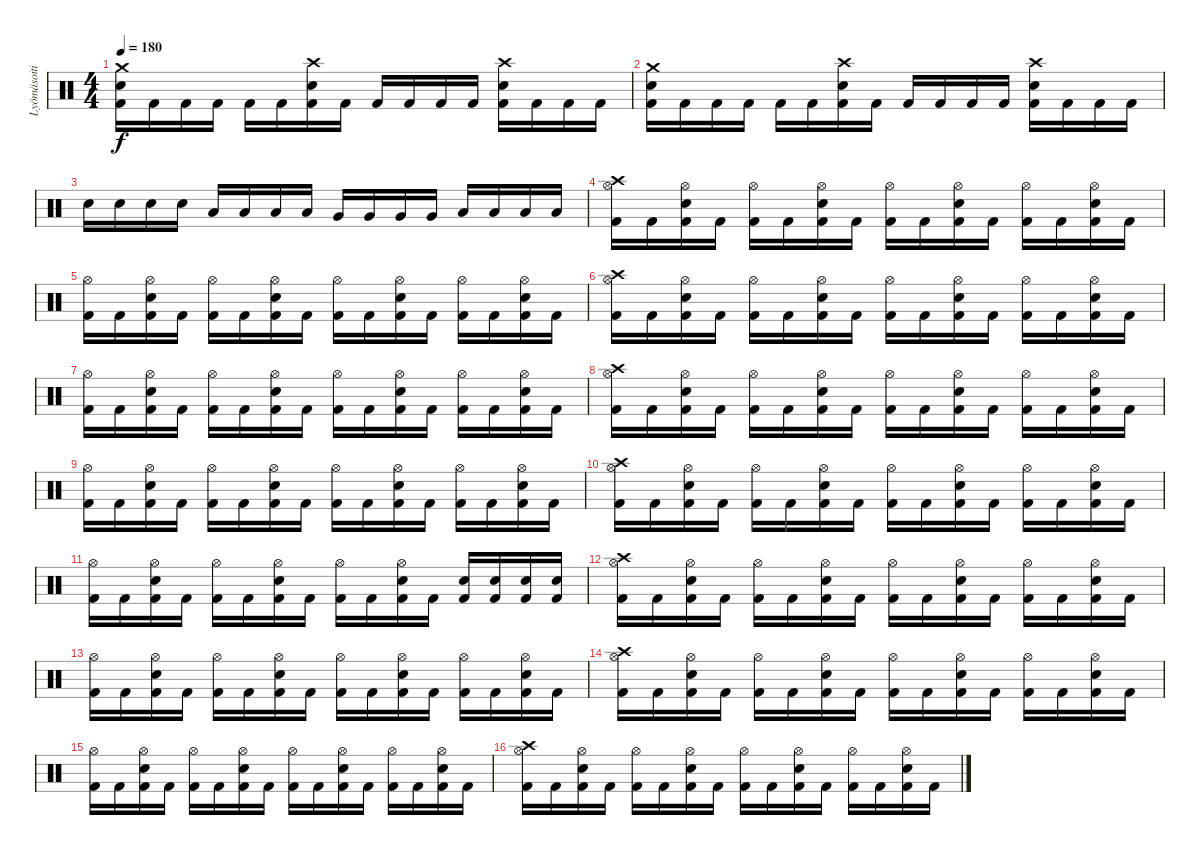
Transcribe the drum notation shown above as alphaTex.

\track ("Lyömäsoitin" "Lyömäsoiti") {instrument percussion}
\staff {score}
\articulation defaults
\ts (4 4)
\tempo 180
\clef neutral
\ks c
("Kick (hit) 2" "Snare (hit) 2" "Crash medium (hit)").16{dy f} "Kick (hit) 2".16 "Kick (hit) 2".16 "Kick (hit) 2".16 "Kick (hit) 2".16 "Kick (hit) 2".16 ("Kick (hit) 2" "Snare (hit) 2" "Crash high (hit)").16 "Kick (hit) 2".16 "Kick (hit) 2".16 "Kick (hit) 2".16 "Kick (hit) 2".16 "Kick (hit) 2".16 ("Kick (hit) 2" "Snare (hit) 2" "Crash high (hit)").16 "Kick (hit) 2".16 "Kick (hit) 2".16 "Kick (hit) 2".16 |
("Kick (hit) 2" "Snare (hit) 2" "Crash medium (hit)").16 "Kick (hit) 2".16 "Kick (hit) 2".16 "Kick (hit) 2".16 "Kick (hit) 2".16 "Kick (hit) 2".16 ("Kick (hit) 2" "Snare (hit) 2" "Crash high (hit)").16 "Kick (hit) 2".16 "Kick (hit) 2".16 "Kick (hit) 2".16 "Kick (hit) 2".16 "Kick (hit) 2".16 ("Kick (hit) 2" "Snare (hit) 2" "Crash high (hit)").16 "Kick (hit) 2".16 "Kick (hit) 2".16 "Kick (hit) 2".16 |
"Snare (hit) 2".16 "Snare (hit) 2".16 "Snare (hit) 2".16 "Snare (hit) 2".16 "Low Tom (hit)".16 "Low Tom (hit)".16 "Low Tom (hit)".16 "Low Tom (hit)".16 "Very Low Tom (hit)".16 "Very Low Tom (hit)".16 "Very Low Tom (hit)".16 "Very Low Tom (hit)".16 "Low Floor Tom (hit)".16 "Low Floor Tom (hit)".16 "Low Floor Tom (hit)".16 "Low Floor Tom (hit)".16 |
("Kick (hit) 2" "Crash high (hit)" "Hi-Hat (open)").16 "Kick (hit) 2".16 ("Kick (hit) 2" "Snare (hit) 2" "Hi-Hat (open)").16 "Kick (hit) 2".16 ("Kick (hit) 2" "Hi-Hat (open)").16 "Kick (hit) 2".16 ("Kick (hit) 2" "Snare (hit) 2" "Hi-Hat (open)").16 "Kick (hit) 2".16 ("Kick (hit) 2" "Hi-Hat (open)").16 "Kick (hit) 2".16 ("Kick (hit) 2" "Snare (hit) 2" "Hi-Hat (open)").16 "Kick (hit) 2".16 ("Kick (hit) 2" "Hi-Hat (open)").16 "Kick (hit) 2".16 ("Kick (hit) 2" "Snare (hit) 2" "Hi-Hat (open)").16 "Kick (hit) 2".16 |
("Kick (hit) 2" "Hi-Hat (open)").16 "Kick (hit) 2".16 ("Kick (hit) 2" "Snare (hit) 2" "Hi-Hat (open)").16 "Kick (hit) 2".16 ("Kick (hit) 2" "Hi-Hat (open)").16 "Kick (hit) 2".16 ("Kick (hit) 2" "Snare (hit) 2" "Hi-Hat (open)").16 "Kick (hit) 2".16 ("Kick (hit) 2" "Hi-Hat (open)").16 "Kick (hit) 2".16 ("Kick (hit) 2" "Snare (hit) 2" "Hi-Hat (open)").16 "Kick (hit) 2".16 ("Kick (hit) 2" "Hi-Hat (open)").16 "Kick (hit) 2".16 ("Kick (hit) 2" "Snare (hit) 2" "Hi-Hat (open)").16 "Kick (hit) 2".16 |
("Kick (hit) 2" "Crash high (hit)" "Hi-Hat (open)").16 "Kick (hit) 2".16 ("Kick (hit) 2" "Snare (hit) 2" "Hi-Hat (open)").16 "Kick (hit) 2".16 ("Kick (hit) 2" "Hi-Hat (open)").16 "Kick (hit) 2".16 ("Kick (hit) 2" "Snare (hit) 2" "Hi-Hat (open)").16 "Kick (hit) 2".16 ("Kick (hit) 2" "Hi-Hat (open)").16 "Kick (hit) 2".16 ("Kick (hit) 2" "Snare (hit) 2" "Hi-Hat (open)").16 "Kick (hit) 2".16 ("Kick (hit) 2" "Hi-Hat (open)").16 "Kick (hit) 2".16 ("Kick (hit) 2" "Snare (hit) 2" "Hi-Hat (open)").16 "Kick (hit) 2".16 |
("Kick (hit) 2" "Hi-Hat (open)").16 "Kick (hit) 2".16 ("Kick (hit) 2" "Snare (hit) 2" "Hi-Hat (open)").16 "Kick (hit) 2".16 ("Kick (hit) 2" "Hi-Hat (open)").16 "Kick (hit) 2".16 ("Kick (hit) 2" "Snare (hit) 2" "Hi-Hat (open)").16 "Kick (hit) 2".16 ("Kick (hit) 2" "Hi-Hat (open)").16 "Kick (hit) 2".16 ("Kick (hit) 2" "Snare (hit) 2" "Hi-Hat (open)").16 "Kick (hit) 2".16 ("Kick (hit) 2" "Hi-Hat (open)").16 "Kick (hit) 2".16 ("Kick (hit) 2" "Snare (hit) 2" "Hi-Hat (open)").16 "Kick (hit) 2".16 |
("Kick (hit) 2" "Crash high (hit)" "Hi-Hat (open)").16 "Kick (hit) 2".16 ("Kick (hit) 2" "Snare (hit) 2" "Hi-Hat (open)").16 "Kick (hit) 2".16 ("Kick (hit) 2" "Hi-Hat (open)").16 "Kick (hit) 2".16 ("Kick (hit) 2" "Snare (hit) 2" "Hi-Hat (open)").16 "Kick (hit) 2".16 ("Kick (hit) 2" "Hi-Hat (open)").16 "Kick (hit) 2".16 ("Kick (hit) 2" "Snare (hit) 2" "Hi-Hat (open)").16 "Kick (hit) 2".16 ("Kick (hit) 2" "Hi-Hat (open)").16 "Kick (hit) 2".16 ("Kick (hit) 2" "Snare (hit) 2" "Hi-Hat (open)").16 "Kick (hit) 2".16 |
("Kick (hit) 2" "Hi-Hat (open)").16 "Kick (hit) 2".16 ("Kick (hit) 2" "Snare (hit) 2" "Hi-Hat (open)").16 "Kick (hit) 2".16 ("Kick (hit) 2" "Hi-Hat (open)").16 "Kick (hit) 2".16 ("Kick (hit) 2" "Snare (hit) 2" "Hi-Hat (open)").16 "Kick (hit) 2".16 ("Kick (hit) 2" "Hi-Hat (open)").16 "Kick (hit) 2".16 ("Kick (hit) 2" "Snare (hit) 2" "Hi-Hat (open)").16 "Kick (hit) 2".16 ("Kick (hit) 2" "Hi-Hat (open)").16 "Kick (hit) 2".16 ("Kick (hit) 2" "Snare (hit) 2" "Hi-Hat (open)").16 "Kick (hit) 2".16 |
("Kick (hit) 2" "Crash high (hit)" "Hi-Hat (open)").16 "Kick (hit) 2".16 ("Kick (hit) 2" "Snare (hit) 2" "Hi-Hat (open)").16 "Kick (hit) 2".16 ("Kick (hit) 2" "Hi-Hat (open)").16 "Kick (hit) 2".16 ("Kick (hit) 2" "Snare (hit) 2" "Hi-Hat (open)").16 "Kick (hit) 2".16 ("Kick (hit) 2" "Hi-Hat (open)").16 "Kick (hit) 2".16 ("Kick (hit) 2" "Snare (hit) 2" "Hi-Hat (open)").16 "Kick (hit) 2".16 ("Kick (hit) 2" "Hi-Hat (open)").16 "Kick (hit) 2".16 ("Kick (hit) 2" "Snare (hit) 2" "Hi-Hat (open)").16 "Kick (hit) 2".16 |
("Kick (hit) 2" "Hi-Hat (open)").16 "Kick (hit) 2".16 ("Kick (hit) 2" "Snare (hit) 2" "Hi-Hat (open)").16 "Kick (hit) 2".16 ("Kick (hit) 2" "Hi-Hat (open)").16 "Kick (hit) 2".16 ("Kick (hit) 2" "Snare (hit) 2" "Hi-Hat (open)").16 "Kick (hit) 2".16 ("Kick (hit) 2" "Hi-Hat (open)").16 "Kick (hit) 2".16 ("Kick (hit) 2" "Snare (hit) 2" "Hi-Hat (open)").16 "Kick (hit) 2".16 ("Kick (hit) 2" "Snare (hit) 2").16 ("Kick (hit) 2" "Snare (hit) 2").16 ("Kick (hit) 2" "Snare (hit) 2").16 ("Kick (hit) 2" "Snare (hit) 2").16 |
("Kick (hit) 2" "Crash high (hit)" "Hi-Hat (open)").16 "Kick (hit) 2".16 ("Kick (hit) 2" "Snare (hit) 2" "Hi-Hat (open)").16 "Kick (hit) 2".16 ("Kick (hit) 2" "Hi-Hat (open)").16 "Kick (hit) 2".16 ("Kick (hit) 2" "Snare (hit) 2" "Hi-Hat (open)").16 "Kick (hit) 2".16 ("Kick (hit) 2" "Hi-Hat (open)").16 "Kick (hit) 2".16 ("Kick (hit) 2" "Snare (hit) 2" "Hi-Hat (open)").16 "Kick (hit) 2".16 ("Kick (hit) 2" "Hi-Hat (open)").16 "Kick (hit) 2".16 ("Kick (hit) 2" "Snare (hit) 2" "Hi-Hat (open)").16 "Kick (hit) 2".16 |
("Kick (hit) 2" "Hi-Hat (open)").16 "Kick (hit) 2".16 ("Kick (hit) 2" "Snare (hit) 2" "Hi-Hat (open)").16 "Kick (hit) 2".16 ("Kick (hit) 2" "Hi-Hat (open)").16 "Kick (hit) 2".16 ("Kick (hit) 2" "Snare (hit) 2" "Hi-Hat (open)").16 "Kick (hit) 2".16 ("Kick (hit) 2" "Hi-Hat (open)").16 "Kick (hit) 2".16 ("Kick (hit) 2" "Snare (hit) 2" "Hi-Hat (open)").16 "Kick (hit) 2".16 ("Kick (hit) 2" "Hi-Hat (open)").16 "Kick (hit) 2".16 ("Kick (hit) 2" "Snare (hit) 2" "Hi-Hat (open)").16 "Kick (hit) 2".16 |
("Kick (hit) 2" "Crash high (hit)" "Hi-Hat (open)").16 "Kick (hit) 2".16 ("Kick (hit) 2" "Snare (hit) 2" "Hi-Hat (open)").16 "Kick (hit) 2".16 ("Kick (hit) 2" "Hi-Hat (open)").16 "Kick (hit) 2".16 ("Kick (hit) 2" "Snare (hit) 2" "Hi-Hat (open)").16 "Kick (hit) 2".16 ("Kick (hit) 2" "Hi-Hat (open)").16 "Kick (hit) 2".16 ("Kick (hit) 2" "Snare (hit) 2" "Hi-Hat (open)").16 "Kick (hit) 2".16 ("Kick (hit) 2" "Hi-Hat (open)").16 "Kick (hit) 2".16 ("Kick (hit) 2" "Snare (hit) 2" "Hi-Hat (open)").16 "Kick (hit) 2".16 |
("Kick (hit) 2" "Hi-Hat (open)").16 "Kick (hit) 2".16 ("Kick (hit) 2" "Snare (hit) 2" "Hi-Hat (open)").16 "Kick (hit) 2".16 ("Kick (hit) 2" "Hi-Hat (open)").16 "Kick (hit) 2".16 ("Kick (hit) 2" "Snare (hit) 2" "Hi-Hat (open)").16 "Kick (hit) 2".16 ("Kick (hit) 2" "Hi-Hat (open)").16 "Kick (hit) 2".16 ("Kick (hit) 2" "Snare (hit) 2" "Hi-Hat (open)").16 "Kick (hit) 2".16 ("Kick (hit) 2" "Hi-Hat (open)").16 "Kick (hit) 2".16 ("Kick (hit) 2" "Snare (hit) 2" "Hi-Hat (open)").16 "Kick (hit) 2".16 |
("Kick (hit) 2" "Crash high (hit)" "Hi-Hat (open)").16 "Kick (hit) 2".16 ("Kick (hit) 2" "Snare (hit) 2" "Hi-Hat (open)").16 "Kick (hit) 2".16 ("Kick (hit) 2" "Hi-Hat (open)").16 "Kick (hit) 2".16 ("Kick (hit) 2" "Snare (hit) 2" "Hi-Hat (open)").16 "Kick (hit) 2".16 ("Kick (hit) 2" "Hi-Hat (open)").16 "Kick (hit) 2".16 ("Kick (hit) 2" "Snare (hit) 2" "Hi-Hat (open)").16 "Kick (hit) 2".16 ("Kick (hit) 2" "Hi-Hat (open)").16 "Kick (hit) 2".16 ("Kick (hit) 2" "Snare (hit) 2" "Hi-Hat (open)").16 "Kick (hit) 2".16
